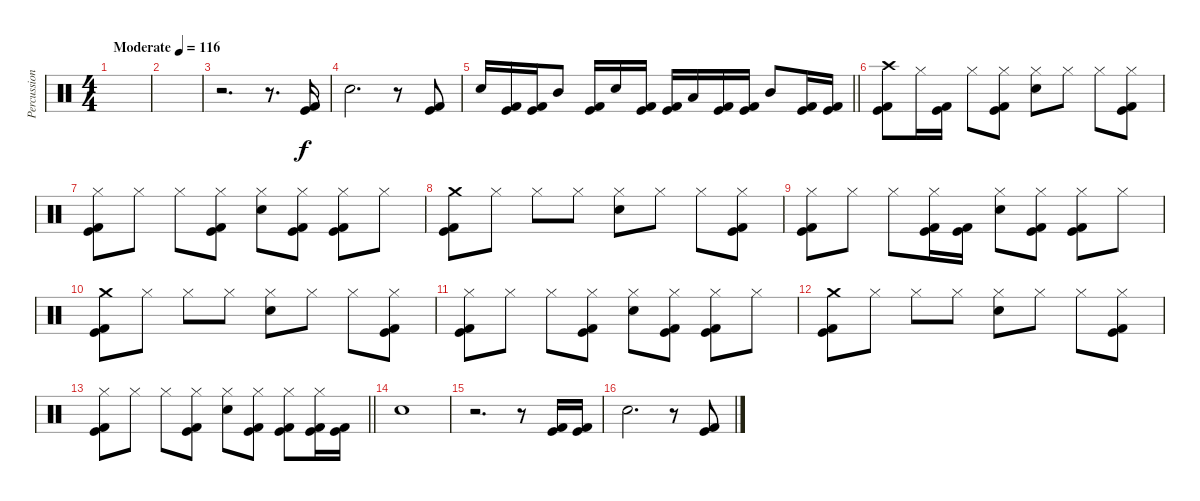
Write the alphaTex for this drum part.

\track ("Percussion" "Percussion") {instrument percussion}
\staff {score}
\articulation defaults
\ts (4 4)
\tempo (116 "Moderate")
\clef neutral
\ks c
|
|
r.2{d} r.8{d} ("Kick (hit)" "Kick (hit) 2").16 |
"Electric Snare (hit)".2{d} r.8 ("Kick (hit)" "Kick (hit) 2").8 |
\barLineRight lightlight "Electric Snare (hit)".16
("Kick (hit)" "Kick (hit) 2").16 ("Kick (hit)" "Kick (hit) 2").16 "Mid Tom (hit)".8 ("Kick (hit)" "Kick (hit) 2").16 "Electric Snare (hit)".16 ("Kick (hit)" "Kick (hit) 2").16 ("Kick (hit)" "Kick (hit) 2").16 "Low Tom (hit)".16 ("Kick (hit)" "Kick (hit) 2").16 ("Kick (hit)" "Kick (hit) 2").16 "Mid Tom (hit)".8 ("Kick (hit)" "Kick (hit) 2").16 ("Kick (hit)" "Kick (hit) 2").16 |
\section ("" "")
("Crash high (hit)" "Kick (hit)" "Kick (hit) 2").8 "Hi-Hat (closed)".16 ("Kick (hit)" "Kick (hit) 2").16 "Hi-Hat (closed)".8 ("Hi-Hat (closed)" "Kick (hit)" "Kick (hit) 2").8 ("Hi-Hat (closed)" "Electric Snare (hit)").8 "Hi-Hat (closed)".8 "Hi-Hat (closed)".8 ("Hi-Hat (closed)" "Kick (hit)" "Kick (hit) 2").8 |
("Hi-Hat (closed)" "Kick (hit)" "Kick (hit) 2").8 "Hi-Hat (closed)".8 "Hi-Hat (closed)".8 ("Hi-Hat (closed)" "Kick (hit)" "Kick (hit) 2").8 ("Hi-Hat (closed)" "Electric Snare (hit)").8 ("Hi-Hat (closed)" "Kick (hit)" "Kick (hit) 2").8 ("Hi-Hat (closed)" "Kick (hit)" "Kick (hit) 2").8 "Hi-Hat (closed)".8 |
("Crash medium (hit)" "Kick (hit)" "Kick (hit) 2").8 "Hi-Hat (closed)".8 "Hi-Hat (closed)".8 "Hi-Hat (closed)".8 ("Hi-Hat (closed)" "Electric Snare (hit)").8 "Hi-Hat (closed)".8 "Hi-Hat (closed)".8 ("Hi-Hat (closed)" "Kick (hit)" "Kick (hit) 2").8 |
("Hi-Hat (closed)" "Kick (hit)" "Kick (hit) 2").8 "Hi-Hat (closed)".8 "Hi-Hat (closed)".8 ("Hi-Hat (closed)" "Kick (hit)" "Kick (hit) 2").16 ("Kick (hit)" "Kick (hit) 2").16 ("Hi-Hat (closed)" "Electric Snare (hit)").8 ("Hi-Hat (closed)" "Kick (hit)" "Kick (hit) 2").8 ("Hi-Hat (closed)" "Kick (hit)" "Kick (hit) 2").8 "Hi-Hat (closed)".8 |
("Crash medium (hit)" "Kick (hit)" "Kick (hit) 2").8 "Hi-Hat (closed)".8 "Hi-Hat (closed)".8 "Hi-Hat (closed)".8 ("Hi-Hat (closed)" "Electric Snare (hit)").8 "Hi-Hat (closed)".8 "Hi-Hat (closed)".8 ("Hi-Hat (closed)" "Kick (hit)" "Kick (hit) 2").8 |
("Hi-Hat (closed)" "Kick (hit)" "Kick (hit) 2").8 "Hi-Hat (closed)".8 "Hi-Hat (closed)".8 ("Hi-Hat (closed)" "Kick (hit)" "Kick (hit) 2").8 ("Hi-Hat (closed)" "Electric Snare (hit)").8 ("Hi-Hat (closed)" "Kick (hit)" "Kick (hit) 2").8 ("Hi-Hat (closed)" "Kick (hit)" "Kick (hit) 2").8 "Hi-Hat (closed)".8 |
("Crash medium (hit)" "Kick (hit)" "Kick (hit) 2").8 "Hi-Hat (closed)".8 "Hi-Hat (closed)".8 "Hi-Hat (closed)".8 ("Hi-Hat (closed)" "Electric Snare (hit)").8 "Hi-Hat (closed)".8 "Hi-Hat (closed)".8 ("Hi-Hat (closed)" "Kick (hit)" "Kick (hit) 2").8 |
\barLineRight lightlight
("Hi-Hat (closed)" "Kick (hit)" "Kick (hit) 2").8 "Hi-Hat (closed)".8 "Hi-Hat (closed)".8 ("Hi-Hat (closed)" "Kick (hit)" "Kick (hit) 2").8 ("Hi-Hat (closed)" "Electric Snare (hit)").8 ("Hi-Hat (closed)" "Kick (hit)" "Kick (hit) 2").8 ("Hi-Hat (closed)" "Kick (hit)" "Kick (hit) 2").8 ("Hi-Hat (closed)" "Kick (hit)" "Kick (hit) 2").16 ("Kick (hit)" "Kick (hit) 2").16 |
\section ("" "")
"Electric Snare (hit)".1 |
r.2{d} r.8 ("Kick (hit)" "Kick (hit) 2").16 ("Kick (hit)" "Kick (hit) 2").16 |
"Electric Snare (hit)".2{d} r.8 ("Kick (hit)" "Kick (hit) 2").8
